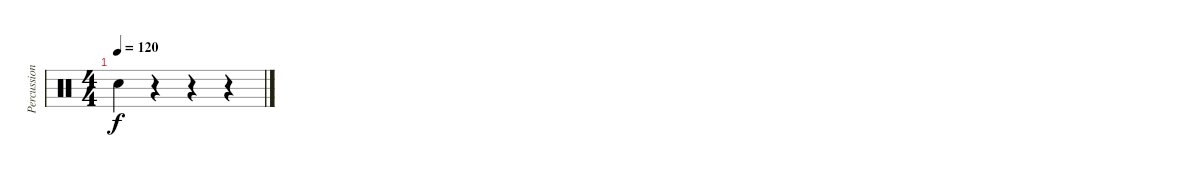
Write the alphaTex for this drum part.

\track ("Percussion" "Percussion") {instrument percussion}
\staff {score}
\articulation defaults
\ts (4 4)
\tempo 120
\clef neutral
\ks c "Electric Snare (hit)".4{dy f}
r.4 r.4 r.4
